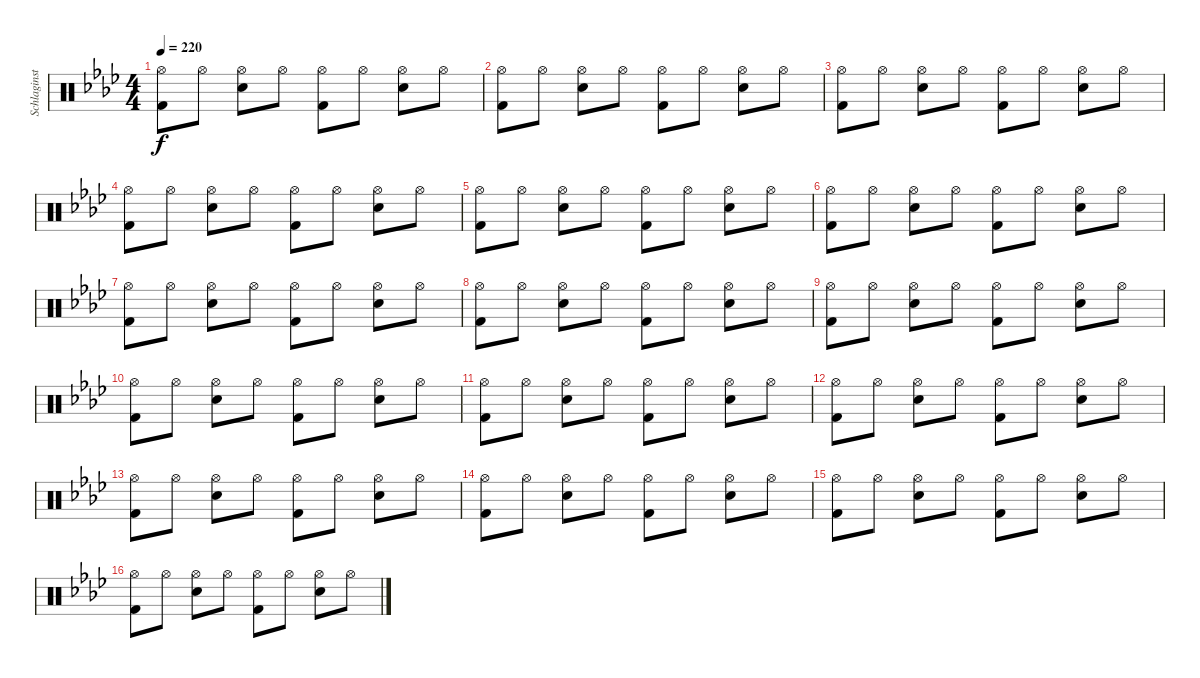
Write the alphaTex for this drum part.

\track ("Schlaginstrumente - Auswahl" "Schlaginst") {instrument percussion}
\staff {score}
\articulation defaults
\ts (4 4)
\tempo 220
\clef neutral
\ks fminor
("Hi-Hat (open)" "Kick (hit) 2").8{dy f} "Hi-Hat (open)".8 ("Hi-Hat (open)" "Snare (hit) 2").8 "Hi-Hat (open)".8 ("Hi-Hat (open)" "Kick (hit) 2").8 "Hi-Hat (open)".8 ("Hi-Hat (open)" "Snare (hit) 2").8 "Hi-Hat (open)".8 |
("Hi-Hat (open)" "Kick (hit) 2").8 "Hi-Hat (open)".8 ("Hi-Hat (open)" "Snare (hit) 2").8 "Hi-Hat (open)".8 ("Hi-Hat (open)" "Kick (hit) 2").8 "Hi-Hat (open)".8 ("Hi-Hat (open)" "Snare (hit) 2").8 "Hi-Hat (open)".8 |
("Hi-Hat (open)" "Kick (hit) 2").8 "Hi-Hat (open)".8 ("Hi-Hat (open)" "Snare (hit) 2").8 "Hi-Hat (open)".8 ("Hi-Hat (open)" "Kick (hit) 2").8 "Hi-Hat (open)".8 ("Hi-Hat (open)" "Snare (hit) 2").8 "Hi-Hat (open)".8 |
("Hi-Hat (open)" "Kick (hit) 2").8 "Hi-Hat (open)".8 ("Hi-Hat (open)" "Snare (hit) 2").8 "Hi-Hat (open)".8 ("Hi-Hat (open)" "Kick (hit) 2").8 "Hi-Hat (open)".8 ("Hi-Hat (open)" "Snare (hit) 2").8 "Hi-Hat (open)".8 |
("Hi-Hat (open)" "Kick (hit) 2").8 "Hi-Hat (open)".8 ("Hi-Hat (open)" "Snare (hit) 2").8 "Hi-Hat (open)".8 ("Hi-Hat (open)" "Kick (hit) 2").8 "Hi-Hat (open)".8 ("Hi-Hat (open)" "Snare (hit) 2").8 "Hi-Hat (open)".8 |
("Hi-Hat (open)" "Kick (hit) 2").8 "Hi-Hat (open)".8 ("Hi-Hat (open)" "Snare (hit) 2").8 "Hi-Hat (open)".8 ("Hi-Hat (open)" "Kick (hit) 2").8 "Hi-Hat (open)".8 ("Hi-Hat (open)" "Snare (hit) 2").8 "Hi-Hat (open)".8 |
("Hi-Hat (open)" "Kick (hit) 2").8 "Hi-Hat (open)".8 ("Hi-Hat (open)" "Snare (hit) 2").8 "Hi-Hat (open)".8 ("Hi-Hat (open)" "Kick (hit) 2").8 "Hi-Hat (open)".8 ("Hi-Hat (open)" "Snare (hit) 2").8 "Hi-Hat (open)".8 |
("Hi-Hat (open)" "Kick (hit) 2").8 "Hi-Hat (open)".8 ("Hi-Hat (open)" "Snare (hit) 2").8 "Hi-Hat (open)".8 ("Hi-Hat (open)" "Kick (hit) 2").8 "Hi-Hat (open)".8 ("Hi-Hat (open)" "Snare (hit) 2").8 "Hi-Hat (open)".8 |
("Hi-Hat (open)" "Kick (hit) 2").8 "Hi-Hat (open)".8 ("Hi-Hat (open)" "Snare (hit) 2").8 "Hi-Hat (open)".8 ("Hi-Hat (open)" "Kick (hit) 2").8 "Hi-Hat (open)".8 ("Hi-Hat (open)" "Snare (hit) 2").8 "Hi-Hat (open)".8 |
("Hi-Hat (open)" "Kick (hit) 2").8 "Hi-Hat (open)".8 ("Hi-Hat (open)" "Snare (hit) 2").8 "Hi-Hat (open)".8 ("Hi-Hat (open)" "Kick (hit) 2").8 "Hi-Hat (open)".8 ("Hi-Hat (open)" "Snare (hit) 2").8 "Hi-Hat (open)".8 |
("Hi-Hat (open)" "Kick (hit) 2").8 "Hi-Hat (open)".8 ("Hi-Hat (open)" "Snare (hit) 2").8 "Hi-Hat (open)".8 ("Hi-Hat (open)" "Kick (hit) 2").8 "Hi-Hat (open)".8 ("Hi-Hat (open)" "Snare (hit) 2").8 "Hi-Hat (open)".8 |
("Hi-Hat (open)" "Kick (hit) 2").8 "Hi-Hat (open)".8 ("Hi-Hat (open)" "Snare (hit) 2").8 "Hi-Hat (open)".8 ("Hi-Hat (open)" "Kick (hit) 2").8 "Hi-Hat (open)".8 ("Hi-Hat (open)" "Snare (hit) 2").8 "Hi-Hat (open)".8 |
("Hi-Hat (open)" "Kick (hit) 2").8 "Hi-Hat (open)".8 ("Hi-Hat (open)" "Snare (hit) 2").8 "Hi-Hat (open)".8 ("Hi-Hat (open)" "Kick (hit) 2").8 "Hi-Hat (open)".8 ("Hi-Hat (open)" "Snare (hit) 2").8 "Hi-Hat (open)".8 |
("Hi-Hat (open)" "Kick (hit) 2").8 "Hi-Hat (open)".8 ("Hi-Hat (open)" "Snare (hit) 2").8 "Hi-Hat (open)".8 ("Hi-Hat (open)" "Kick (hit) 2").8 "Hi-Hat (open)".8 ("Hi-Hat (open)" "Snare (hit) 2").8 "Hi-Hat (open)".8 |
("Hi-Hat (open)" "Kick (hit) 2").8 "Hi-Hat (open)".8 ("Hi-Hat (open)" "Snare (hit) 2").8 "Hi-Hat (open)".8 ("Hi-Hat (open)" "Kick (hit) 2").8 "Hi-Hat (open)".8 ("Hi-Hat (open)" "Snare (hit) 2").8 "Hi-Hat (open)".8 |
("Hi-Hat (open)" "Kick (hit) 2").8 "Hi-Hat (open)".8 ("Hi-Hat (open)" "Snare (hit) 2").8 "Hi-Hat (open)".8 ("Hi-Hat (open)" "Kick (hit) 2").8 "Hi-Hat (open)".8 ("Hi-Hat (open)" "Snare (hit) 2").8 "Hi-Hat (open)".8
